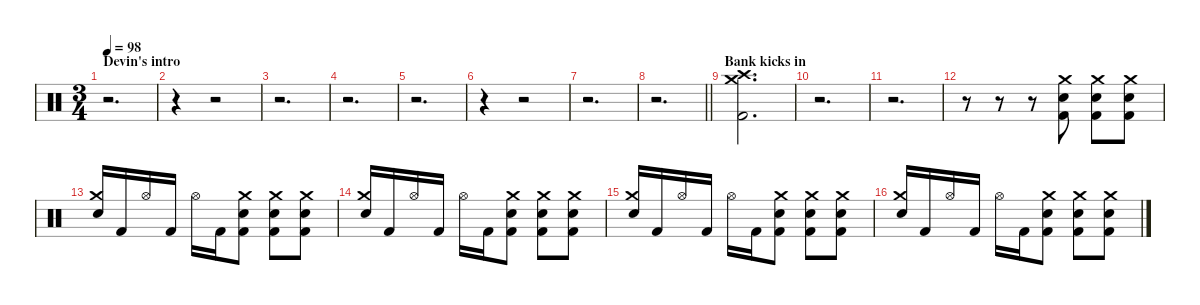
\defaultSystemsLayout 4
\hideDynamics
\bracketExtendMode nobrackets
\singleTrackTrackNamePolicy hidden
\multiTrackTrackNamePolicy hidden
\firstSystemTrackNameMode fullname
\firstSystemTrackNameOrientation horizontal
\otherSystemsTrackNameOrientation horizontal
\track ("Drums" "drm.") {instrument percussion}
\staff {score}
\articulation defaults
\ts (3 4)
\beaming (8 2 2 2)
\section ("" "Devin's intro")
\tempo 98
\clef neutral
\ks c
r.2{d dy f beam Down} |
r.4{beam Down} r.2{beam Down} |
r.2{d beam Down} |
r.2{d beam Down} |
r.2{d beam Down} |
r.4{beam Down} r.2{beam Down} |
r.2{d beam Down} |
\barLineRight lightlight
r.2{d beam Down} |
\section ("" "Bank kicks in")
("Crash medium (hit)" "Crash high (hit)" "Kick (hit) 2").2{d beam Down} |
r.2{d beam Down} |
r.2{d beam Down} |
r.8{beam Down} r.8{beam Down} r.8{beam Down} ("Crash medium (hit)" "Snare (hit) 2" "Kick (hit) 2").8{beam Down} ("Crash medium (hit)" "Snare (hit) 2" "Kick (hit) 2").8{beam Down} ("Crash medium (hit)" "Snare (hit) 2" "Kick (hit) 2").8{beam Down} |
("Crash medium (hit)" "Snare (hit) 2").16{beam Up} "Kick (hit) 2".16{beam Up} "Hi-Hat (open)".16{beam Up} "Kick (hit) 2".16{beam Up} "Hi-Hat (open)".16{beam Down} "Kick (hit) 2".16{beam Down} ("Crash medium (hit)" "Snare (hit) 2" "Kick (hit) 2").8{beam Down} ("Crash medium (hit)" "Snare (hit) 2" "Kick (hit) 2").8{beam Down} ("Crash medium (hit)" "Snare (hit) 2" "Kick (hit) 2").8{beam Down} |
("Crash medium (hit)" "Snare (hit) 2").16{beam Up} "Kick (hit) 2".16{beam Up} "Hi-Hat (open)".16{beam Up} "Kick (hit) 2".16{beam Up} "Hi-Hat (open)".16{beam Down} "Kick (hit) 2".16{beam Down} ("Crash medium (hit)" "Snare (hit) 2" "Kick (hit) 2").8{beam Down} ("Crash medium (hit)" "Snare (hit) 2" "Kick (hit) 2").8{beam Down} ("Crash medium (hit)" "Snare (hit) 2" "Kick (hit) 2").8{beam Down} |
("Crash medium (hit)" "Snare (hit) 2").16{beam Up} "Kick (hit) 2".16{beam Up} "Hi-Hat (open)".16{beam Up} "Kick (hit) 2".16{beam Up} "Hi-Hat (open)".16{beam Down} "Kick (hit) 2".16{beam Down} ("Crash medium (hit)" "Snare (hit) 2" "Kick (hit) 2").8{beam Down} ("Crash medium (hit)" "Snare (hit) 2" "Kick (hit) 2").8{beam Down} ("Crash medium (hit)" "Snare (hit) 2" "Kick (hit) 2").8{beam Down} |
("Crash medium (hit)" "Snare (hit) 2").16{beam Up} "Kick (hit) 2".16{beam Up} "Hi-Hat (open)".16{beam Up} "Kick (hit) 2".16{beam Up} "Hi-Hat (open)".16{beam Down} "Kick (hit) 2".16{beam Down} ("Crash medium (hit)" "Snare (hit) 2" "Kick (hit) 2").8{beam Down} ("Crash medium (hit)" "Snare (hit) 2" "Kick (hit) 2").8{beam Down} ("Crash medium (hit)" "Snare (hit) 2" "Kick (hit) 2").8{beam Down}
